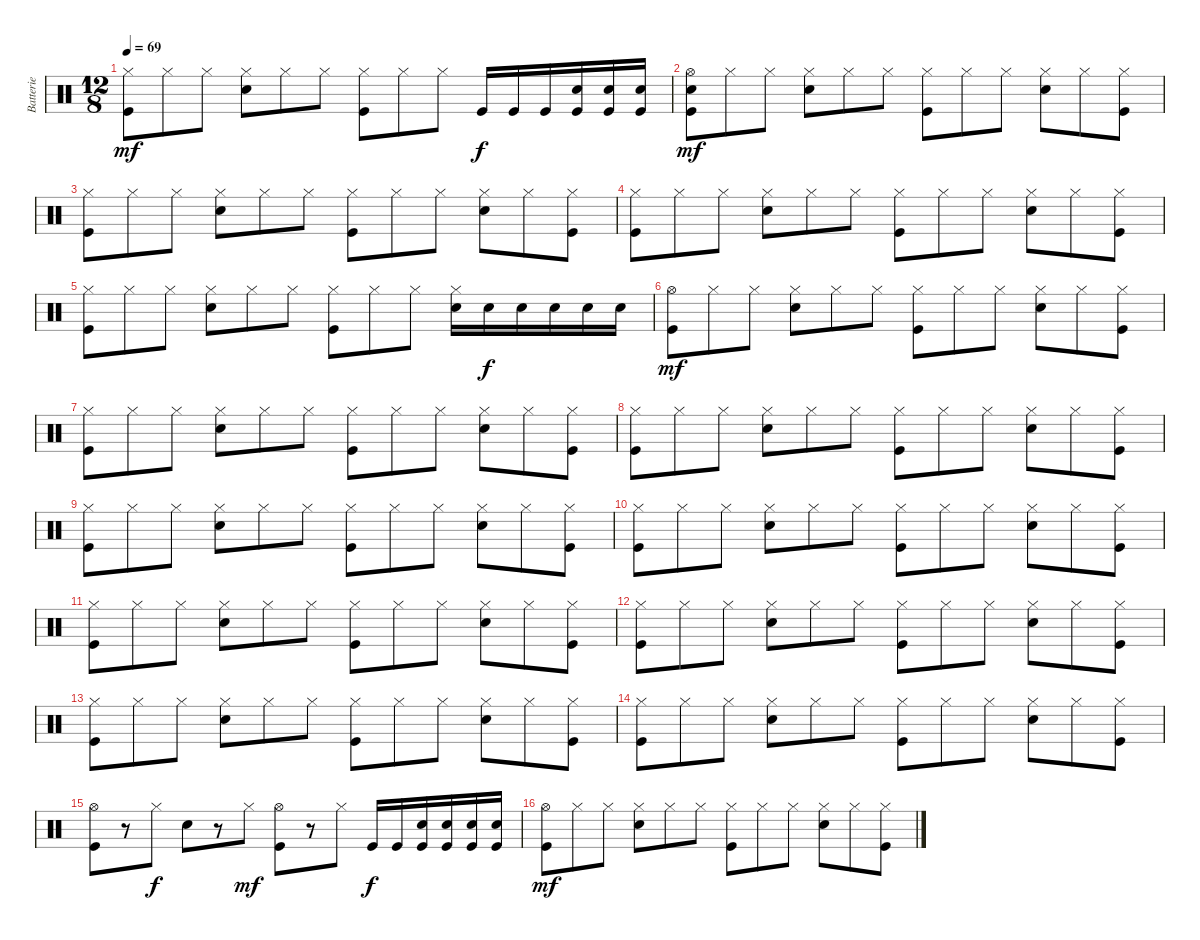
\track ("Batterie" "Batterie") {instrument percussion}
\staff {score}
\articulation defaults
\ts (12 8)
\tempo 69
\clef neutral
\ks c
("Hi-Hat (closed)" "Kick (hit)").8{dy mf} "Hi-Hat (closed)".8 "Hi-Hat (closed)".8 ("Hi-Hat (closed)" "Snare (hit) 2").8 "Hi-Hat (closed)".8 "Hi-Hat (closed)".8 ("Hi-Hat (closed)" "Kick (hit)").8 "Hi-Hat (closed)".8 "Hi-Hat (closed)".8 "Kick (hit)".16{dy f} "Kick (hit)".16 "Kick (hit)".16 ("Snare (hit) 2" "Kick (hit)").16 ("Snare (hit) 2" "Kick (hit)").16 ("Snare (hit) 2" "Kick (hit)").16 |
("Hi-Hat (open)" "Snare (hit) 2" "Kick (hit)").8{dy mf} "Hi-Hat (closed)".8 "Hi-Hat (closed)".8 ("Hi-Hat (closed)" "Snare (hit) 2").8 "Hi-Hat (closed)".8 "Hi-Hat (closed)".8 ("Hi-Hat (closed)" "Kick (hit)").8 "Hi-Hat (closed)".8 "Hi-Hat (closed)".8 ("Hi-Hat (closed)" "Snare (hit) 2").8 "Hi-Hat (closed)".8 ("Hi-Hat (closed)" "Kick (hit)").8 |
("Hi-Hat (closed)" "Kick (hit)").8 "Hi-Hat (closed)".8 "Hi-Hat (closed)".8 ("Hi-Hat (closed)" "Snare (hit) 2").8 "Hi-Hat (closed)".8 "Hi-Hat (closed)".8 ("Hi-Hat (closed)" "Kick (hit)").8 "Hi-Hat (closed)".8 "Hi-Hat (closed)".8 ("Hi-Hat (closed)" "Snare (hit) 2").8 "Hi-Hat (closed)".8 ("Hi-Hat (closed)" "Kick (hit)").8 |
("Hi-Hat (closed)" "Kick (hit)").8 "Hi-Hat (closed)".8 "Hi-Hat (closed)".8 ("Hi-Hat (closed)" "Snare (hit) 2").8 "Hi-Hat (closed)".8 "Hi-Hat (closed)".8 ("Hi-Hat (closed)" "Kick (hit)").8 "Hi-Hat (closed)".8 "Hi-Hat (closed)".8 ("Hi-Hat (closed)" "Snare (hit) 2").8 "Hi-Hat (closed)".8 ("Hi-Hat (closed)" "Kick (hit)").8 |
("Hi-Hat (closed)" "Kick (hit)").8 "Hi-Hat (closed)".8 "Hi-Hat (closed)".8 ("Hi-Hat (closed)" "Snare (hit) 2").8 "Hi-Hat (closed)".8 "Hi-Hat (closed)".8 ("Hi-Hat (closed)" "Kick (hit)").8 "Hi-Hat (closed)".8 "Hi-Hat (closed)".8 ("Hi-Hat (closed)" "Snare (hit) 2").16 "Snare (hit) 2".16{dy f} "Snare (hit) 2".16 "Snare (hit) 2".16 "Snare (hit) 2".16 "Snare (hit) 2".16 |
("Hi-Hat (open)" "Kick (hit)").8{dy mf} "Hi-Hat (closed)".8 "Hi-Hat (closed)".8 ("Hi-Hat (closed)" "Snare (hit) 2").8 "Hi-Hat (closed)".8 "Hi-Hat (closed)".8 ("Hi-Hat (closed)" "Kick (hit)").8 "Hi-Hat (closed)".8 "Hi-Hat (closed)".8 ("Hi-Hat (closed)" "Snare (hit) 2").8 "Hi-Hat (closed)".8 ("Hi-Hat (closed)" "Kick (hit)").8 |
("Hi-Hat (closed)" "Kick (hit)").8 "Hi-Hat (closed)".8 "Hi-Hat (closed)".8 ("Hi-Hat (closed)" "Snare (hit) 2").8 "Hi-Hat (closed)".8 "Hi-Hat (closed)".8 ("Hi-Hat (closed)" "Kick (hit)").8 "Hi-Hat (closed)".8 "Hi-Hat (closed)".8 ("Hi-Hat (closed)" "Snare (hit) 2").8 "Hi-Hat (closed)".8 ("Hi-Hat (closed)" "Kick (hit)").8 |
("Hi-Hat (closed)" "Kick (hit)").8 "Hi-Hat (closed)".8 "Hi-Hat (closed)".8 ("Hi-Hat (closed)" "Snare (hit) 2").8 "Hi-Hat (closed)".8 "Hi-Hat (closed)".8 ("Hi-Hat (closed)" "Kick (hit)").8 "Hi-Hat (closed)".8 "Hi-Hat (closed)".8 ("Hi-Hat (closed)" "Snare (hit) 2").8 "Hi-Hat (closed)".8 ("Hi-Hat (closed)" "Kick (hit)").8 |
("Hi-Hat (closed)" "Kick (hit)").8 "Hi-Hat (closed)".8 "Hi-Hat (closed)".8 ("Hi-Hat (closed)" "Snare (hit) 2").8 "Hi-Hat (closed)".8 "Hi-Hat (closed)".8 ("Hi-Hat (closed)" "Kick (hit)").8 "Hi-Hat (closed)".8 "Hi-Hat (closed)".8 ("Hi-Hat (closed)" "Snare (hit) 2").8 "Hi-Hat (closed)".8 ("Hi-Hat (closed)" "Kick (hit)").8 |
("Hi-Hat (closed)" "Kick (hit)").8 "Hi-Hat (closed)".8 "Hi-Hat (closed)".8 ("Hi-Hat (closed)" "Snare (hit) 2").8 "Hi-Hat (closed)".8 "Hi-Hat (closed)".8 ("Hi-Hat (closed)" "Kick (hit)").8 "Hi-Hat (closed)".8 "Hi-Hat (closed)".8 ("Hi-Hat (closed)" "Snare (hit) 2").8 "Hi-Hat (closed)".8 ("Hi-Hat (closed)" "Kick (hit)").8 |
("Hi-Hat (closed)" "Kick (hit)").8 "Hi-Hat (closed)".8 "Hi-Hat (closed)".8 ("Hi-Hat (closed)" "Snare (hit) 2").8 "Hi-Hat (closed)".8 "Hi-Hat (closed)".8 ("Hi-Hat (closed)" "Kick (hit)").8 "Hi-Hat (closed)".8 "Hi-Hat (closed)".8 ("Hi-Hat (closed)" "Snare (hit) 2").8 "Hi-Hat (closed)".8 ("Hi-Hat (closed)" "Kick (hit)").8 |
("Hi-Hat (closed)" "Kick (hit)").8 "Hi-Hat (closed)".8 "Hi-Hat (closed)".8 ("Hi-Hat (closed)" "Snare (hit) 2").8 "Hi-Hat (closed)".8 "Hi-Hat (closed)".8 ("Hi-Hat (closed)" "Kick (hit)").8 "Hi-Hat (closed)".8 "Hi-Hat (closed)".8 ("Hi-Hat (closed)" "Snare (hit) 2").8 "Hi-Hat (closed)".8 ("Hi-Hat (closed)" "Kick (hit)").8 |
("Hi-Hat (closed)" "Kick (hit)").8 "Hi-Hat (closed)".8 "Hi-Hat (closed)".8 ("Hi-Hat (closed)" "Snare (hit) 2").8 "Hi-Hat (closed)".8 "Hi-Hat (closed)".8 ("Hi-Hat (closed)" "Kick (hit)").8 "Hi-Hat (closed)".8 "Hi-Hat (closed)".8 ("Hi-Hat (closed)" "Snare (hit) 2").8 "Hi-Hat (closed)".8 ("Hi-Hat (closed)" "Kick (hit)").8 |
("Hi-Hat (closed)" "Kick (hit)").8 "Hi-Hat (closed)".8 "Hi-Hat (closed)".8 ("Hi-Hat (closed)" "Snare (hit) 2").8 "Hi-Hat (closed)".8 "Hi-Hat (closed)".8 ("Hi-Hat (closed)" "Kick (hit)").8 "Hi-Hat (closed)".8 "Hi-Hat (closed)".8 ("Hi-Hat (closed)" "Snare (hit) 2").8 "Hi-Hat (closed)".8 ("Hi-Hat (closed)" "Kick (hit)").8 |
("Hi-Hat (open)" "Kick (hit)").8 r.8 "Hi-Hat (closed)".8{dy f} "Snare (hit) 2".8 r.8 "Hi-Hat (closed)".8{dy mf} ("Hi-Hat (open)" "Kick (hit)").8 r.8 "Hi-Hat (closed)".8 "Kick (hit)".16{dy f} "Kick (hit)".16 ("Snare (hit) 2" "Kick (hit)").16 ("Snare (hit) 2" "Kick (hit)").16 ("Snare (hit) 2" "Kick (hit)").16 ("Snare (hit) 2" "Kick (hit)").16 |
("Hi-Hat (open)" "Kick (hit)").8{dy mf} "Hi-Hat (closed)".8 "Hi-Hat (closed)".8 ("Hi-Hat (closed)" "Snare (hit) 2").8 "Hi-Hat (closed)".8 "Hi-Hat (closed)".8 ("Hi-Hat (closed)" "Kick (hit)").8 "Hi-Hat (closed)".8 "Hi-Hat (closed)".8 ("Hi-Hat (closed)" "Snare (hit) 2").8 "Hi-Hat (closed)".8 ("Hi-Hat (closed)" "Kick (hit)").8
